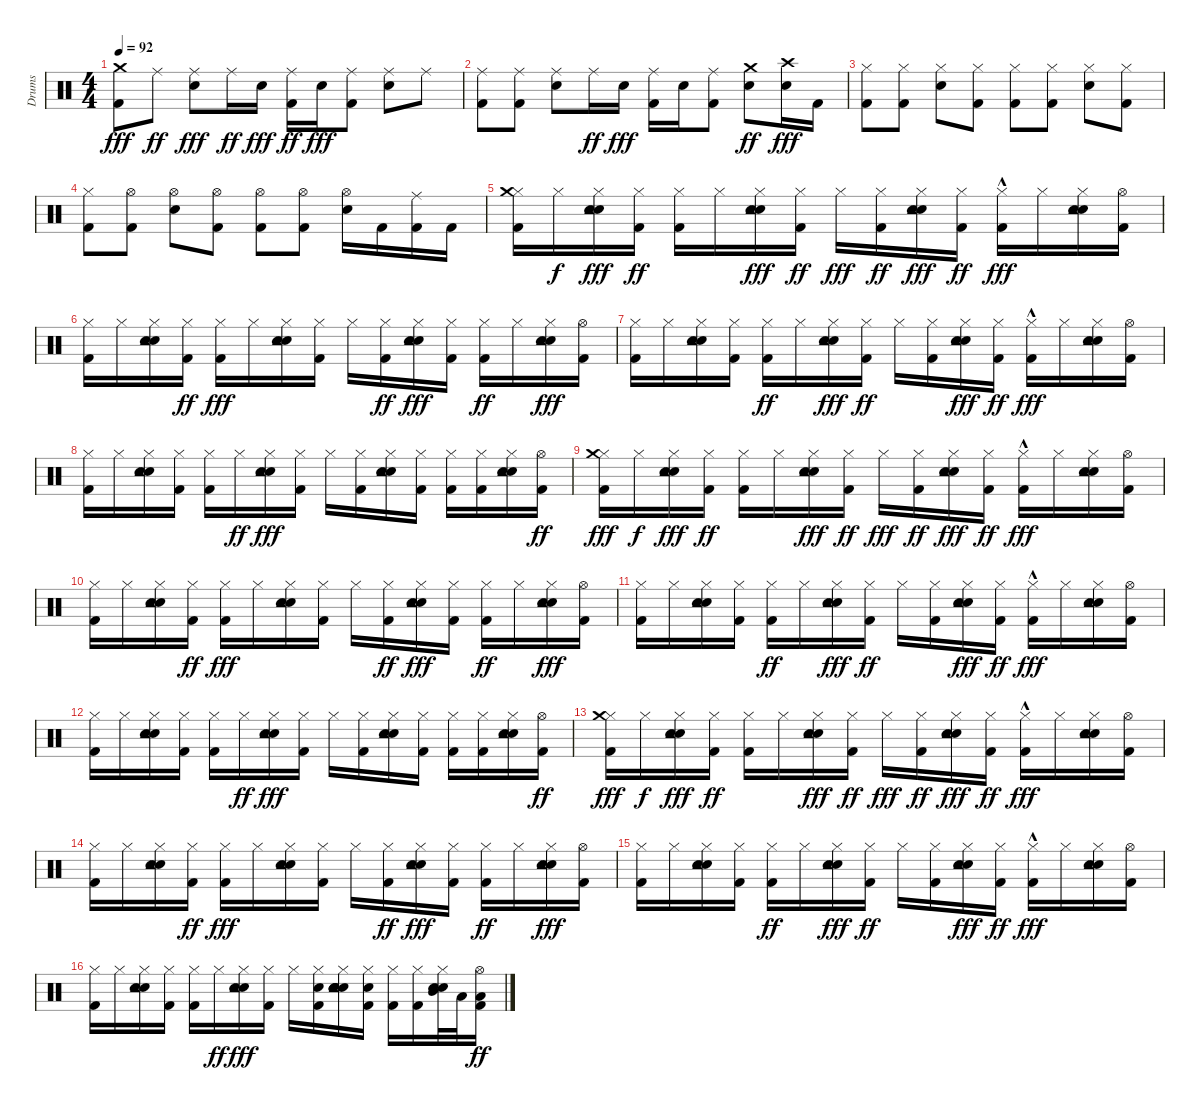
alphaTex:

\track ("Drums" "Drums") {instrument percussion}
\staff {score}
\articulation defaults
\ts (4 4)
\tempo 92
\clef neutral
\ks c
("Kick (hit) 2" "Crash medium (hit)").8{dy fff} "Ride (middle)".8{dy ff} ("Snare (hit) 2" "Ride (middle)").8{dy fff} "Ride (middle)".16{dy ff} "Snare (hit) 2".16{dy fff} ("Kick (hit) 2" "Ride (middle)").16{dy ff} "Snare (hit) 2".16{dy fff} ("Kick (hit) 2" "Ride (middle)").8 ("Snare (hit) 2" "Ride (middle)").8 "Ride (middle)".8 |
("Kick (hit) 2" "Ride (middle)").8 ("Kick (hit) 2" "Ride (middle)").8 ("Snare (hit) 2" "Ride (middle)").8 "Ride (middle)".16{dy ff} "Snare (hit) 2".16{dy fff} ("Kick (hit) 2" "Ride (middle)").16 "Snare (hit) 2".16 ("Kick (hit) 2" "Ride (middle)").8 ("Snare (hit) 2" "Crash medium (hit)").8{dy ff} ("Snare (hit) 2" "Crash high (hit)").16{dy fff} "Kick (hit) 2".16 |
("Kick (hit) 2" "Hi-Hat (closed)").8 ("Kick (hit) 2" "Hi-Hat (closed)").8 ("Snare (hit) 2" "Hi-Hat (closed)").8 ("Kick (hit) 2" "Hi-Hat (closed)").8 ("Kick (hit) 2" "Hi-Hat (closed)").8 ("Kick (hit) 2" "Hi-Hat (closed)").8 ("Snare (hit) 2" "Hi-Hat (closed)").8 ("Kick (hit) 2" "Hi-Hat (closed)").8 |
("Kick (hit) 2" "Hi-Hat (closed)").8 ("Kick (hit) 2" "Hi-Hat (open)").8 ("Snare (hit) 2" "Hi-Hat (open)").8 ("Kick (hit) 2" "Hi-Hat (open)").8 ("Kick (hit) 2" "Hi-Hat (open)").8 ("Kick (hit) 2" "Hi-Hat (open)").8 ("Snare (hit) 2" "Hi-Hat (open)").16 "Kick (hit) 2".16 ("Kick (hit) 2" "Ride (middle)").16 "Kick (hit) 2".16 |
("Kick (hit) 2" "Hi-Hat (closed)" "Crash medium (hit)").16 "Hi-Hat (closed)".16{dy f} ("Snare (hit) 2" "Hand Clap (hit)" "Hi-Hat (closed)" "Tambourine (hit)").16{dy fff} ("Kick (hit) 2" "Hi-Hat (closed)").16{dy ff} ("Kick (hit) 2" "Hi-Hat (closed)").16 "Hi-Hat (closed)".16 ("Snare (hit) 2" "Hand Clap (hit)" "Hi-Hat (closed)" "Tambourine (hit)").16{dy fff} ("Kick (hit) 2" "Hi-Hat (closed)").16{dy ff} "Hi-Hat (closed)".16{dy fff} ("Kick (hit) 2" "Hi-Hat (closed)").16{dy ff} ("Snare (hit) 2" "Hand Clap (hit)" "Hi-Hat (closed)" "Tambourine (hit)").16{dy fff} ("Kick (hit) 2" "Hi-Hat (closed)").16{dy ff} ("Kick (hit) 2"{hac} "Hi-Hat (closed)").16{dy fff} "Hi-Hat (closed)".16 ("Snare (hit) 2" "Hand Clap (hit)" "Hi-Hat (closed)" "Tambourine (hit)").16 ("Kick (hit) 2" "Hi-Hat (open)").16 |
("Kick (hit) 2" "Hi-Hat (closed)").16 "Hi-Hat (closed)".16 ("Snare (hit) 2" "Hand Clap (hit)" "Hi-Hat (closed)" "Tambourine (hit)").16 ("Kick (hit) 2" "Hi-Hat (closed)").16{dy ff} ("Kick (hit) 2" "Hi-Hat (closed)").16{dy fff} "Hi-Hat (closed)".16 ("Snare (hit) 2" "Hand Clap (hit)" "Hi-Hat (closed)" "Tambourine (hit)").16 ("Kick (hit) 2" "Hi-Hat (closed)").16 "Hi-Hat (closed)".16 ("Kick (hit) 2" "Hi-Hat (closed)").16{dy ff} ("Snare (hit) 2" "Hand Clap (hit)" "Hi-Hat (closed)" "Tambourine (hit)").16{dy fff} ("Kick (hit) 2" "Hi-Hat (closed)").16 ("Kick (hit) 2" "Hi-Hat (closed)").16{dy ff} "Hi-Hat (closed)".16 ("Snare (hit) 2" "Hand Clap (hit)" "Hi-Hat (closed)" "Tambourine (hit)").16{dy fff} ("Kick (hit) 2" "Hi-Hat (open)").16 |
("Kick (hit) 2" "Hi-Hat (closed)").16 "Hi-Hat (closed)".16 ("Snare (hit) 2" "Hand Clap (hit)" "Hi-Hat (closed)" "Tambourine (hit)").16 ("Kick (hit) 2" "Hi-Hat (closed)").16 ("Kick (hit) 2" "Hi-Hat (closed)").16{dy ff} "Hi-Hat (closed)".16 ("Snare (hit) 2" "Hand Clap (hit)" "Hi-Hat (closed)" "Tambourine (hit)").16{dy fff} ("Kick (hit) 2" "Hi-Hat (closed)").16{dy ff} "Hi-Hat (closed)".16 ("Kick (hit) 2" "Hi-Hat (closed)").16 ("Snare (hit) 2" "Hand Clap (hit)" "Hi-Hat (closed)" "Tambourine (hit)").16{dy fff} ("Kick (hit) 2" "Hi-Hat (closed)").16{dy ff} ("Kick (hit) 2"{hac} "Hi-Hat (closed)").16{dy fff} "Hi-Hat (closed)".16 ("Snare (hit) 2" "Hand Clap (hit)" "Hi-Hat (closed)" "Tambourine (hit)").16 ("Kick (hit) 2" "Hi-Hat (open)").16 |
("Kick (hit) 2" "Hi-Hat (closed)").16 "Hi-Hat (closed)".16 ("Snare (hit) 2" "Hand Clap (hit)" "Hi-Hat (closed)" "Tambourine (hit)").16 ("Kick (hit) 2" "Hi-Hat (closed)").16 ("Kick (hit) 2" "Hi-Hat (closed)").16 "Hi-Hat (closed)".16{dy ff} ("Snare (hit) 2" "Hand Clap (hit)" "Hi-Hat (closed)" "Tambourine (hit)").16{dy fff} ("Kick (hit) 2" "Hi-Hat (closed)").16 "Hi-Hat (closed)".16 ("Kick (hit) 2" "Hi-Hat (closed)").16 ("Snare (hit) 2" "Hand Clap (hit)" "Hi-Hat (closed)" "Tambourine (hit)").16 ("Kick (hit) 2" "Hi-Hat (closed)").16 ("Kick (hit) 2" "Hi-Hat (closed)").16 ("Kick (hit) 2" "Hi-Hat (closed)").16 ("Snare (hit) 2" "Hand Clap (hit)" "Hi-Hat (closed)" "Tambourine (hit)").16 ("Kick (hit) 2" "Hi-Hat (open)").16{dy ff} |
("Kick (hit) 2" "Hi-Hat (closed)" "Crash medium (hit)").16{dy fff} "Hi-Hat (closed)".16{dy f} ("Snare (hit) 2" "Hand Clap (hit)" "Hi-Hat (closed)" "Tambourine (hit)").16{dy fff} ("Kick (hit) 2" "Hi-Hat (closed)").16{dy ff} ("Kick (hit) 2" "Hi-Hat (closed)").16 "Hi-Hat (closed)".16 ("Snare (hit) 2" "Hand Clap (hit)" "Hi-Hat (closed)" "Tambourine (hit)").16{dy fff} ("Kick (hit) 2" "Hi-Hat (closed)").16{dy ff} "Hi-Hat (closed)".16{dy fff} ("Kick (hit) 2" "Hi-Hat (closed)").16{dy ff} ("Snare (hit) 2" "Hand Clap (hit)" "Hi-Hat (closed)" "Tambourine (hit)").16{dy fff} ("Kick (hit) 2" "Hi-Hat (closed)").16{dy ff} ("Kick (hit) 2"{hac} "Hi-Hat (closed)").16{dy fff} "Hi-Hat (closed)".16 ("Snare (hit) 2" "Hand Clap (hit)" "Hi-Hat (closed)" "Tambourine (hit)").16 ("Kick (hit) 2" "Hi-Hat (open)").16 |
("Kick (hit) 2" "Hi-Hat (closed)").16 "Hi-Hat (closed)".16 ("Snare (hit) 2" "Hand Clap (hit)" "Hi-Hat (closed)" "Tambourine (hit)").16 ("Kick (hit) 2" "Hi-Hat (closed)").16{dy ff} ("Kick (hit) 2" "Hi-Hat (closed)").16{dy fff} "Hi-Hat (closed)".16 ("Snare (hit) 2" "Hand Clap (hit)" "Hi-Hat (closed)" "Tambourine (hit)").16 ("Kick (hit) 2" "Hi-Hat (closed)").16 "Hi-Hat (closed)".16 ("Kick (hit) 2" "Hi-Hat (closed)").16{dy ff} ("Snare (hit) 2" "Hand Clap (hit)" "Hi-Hat (closed)" "Tambourine (hit)").16{dy fff} ("Kick (hit) 2" "Hi-Hat (closed)").16 ("Kick (hit) 2" "Hi-Hat (closed)").16{dy ff} "Hi-Hat (closed)".16 ("Snare (hit) 2" "Hand Clap (hit)" "Hi-Hat (closed)" "Tambourine (hit)").16{dy fff} ("Kick (hit) 2" "Hi-Hat (open)").16 |
("Kick (hit) 2" "Hi-Hat (closed)").16 "Hi-Hat (closed)".16 ("Snare (hit) 2" "Hand Clap (hit)" "Hi-Hat (closed)" "Tambourine (hit)").16 ("Kick (hit) 2" "Hi-Hat (closed)").16 ("Kick (hit) 2" "Hi-Hat (closed)").16{dy ff} "Hi-Hat (closed)".16 ("Snare (hit) 2" "Hand Clap (hit)" "Hi-Hat (closed)" "Tambourine (hit)").16{dy fff} ("Kick (hit) 2" "Hi-Hat (closed)").16{dy ff} "Hi-Hat (closed)".16 ("Kick (hit) 2" "Hi-Hat (closed)").16 ("Snare (hit) 2" "Hand Clap (hit)" "Hi-Hat (closed)" "Tambourine (hit)").16{dy fff} ("Kick (hit) 2" "Hi-Hat (closed)").16{dy ff} ("Kick (hit) 2"{hac} "Hi-Hat (closed)").16{dy fff} "Hi-Hat (closed)".16 ("Snare (hit) 2" "Hand Clap (hit)" "Hi-Hat (closed)" "Tambourine (hit)").16 ("Kick (hit) 2" "Hi-Hat (open)").16 |
("Kick (hit) 2" "Hi-Hat (closed)").16 "Hi-Hat (closed)".16 ("Snare (hit) 2" "Hand Clap (hit)" "Hi-Hat (closed)" "Tambourine (hit)").16 ("Kick (hit) 2" "Hi-Hat (closed)").16 ("Kick (hit) 2" "Hi-Hat (closed)").16 "Hi-Hat (closed)".16{dy ff} ("Snare (hit) 2" "Hand Clap (hit)" "Hi-Hat (closed)" "Tambourine (hit)").16{dy fff} ("Kick (hit) 2" "Hi-Hat (closed)").16 "Hi-Hat (closed)".16 ("Kick (hit) 2" "Hi-Hat (closed)").16 ("Snare (hit) 2" "Hand Clap (hit)" "Hi-Hat (closed)" "Tambourine (hit)").16 ("Kick (hit) 2" "Hi-Hat (closed)").16 ("Kick (hit) 2" "Hi-Hat (closed)").16 ("Kick (hit) 2" "Hi-Hat (closed)").16 ("Snare (hit) 2" "Hand Clap (hit)" "Hi-Hat (closed)" "Tambourine (hit)").16 ("Kick (hit) 2" "Hi-Hat (open)").16{dy ff} |
("Kick (hit) 2" "Hi-Hat (closed)" "Crash medium (hit)").16{dy fff} "Hi-Hat (closed)".16{dy f} ("Snare (hit) 2" "Hand Clap (hit)" "Hi-Hat (closed)" "Tambourine (hit)").16{dy fff} ("Kick (hit) 2" "Hi-Hat (closed)").16{dy ff} ("Kick (hit) 2" "Hi-Hat (closed)").16 "Hi-Hat (closed)".16 ("Snare (hit) 2" "Hand Clap (hit)" "Hi-Hat (closed)" "Tambourine (hit)").16{dy fff} ("Kick (hit) 2" "Hi-Hat (closed)").16{dy ff} "Hi-Hat (closed)".16{dy fff} ("Kick (hit) 2" "Hi-Hat (closed)").16{dy ff} ("Snare (hit) 2" "Hand Clap (hit)" "Hi-Hat (closed)" "Tambourine (hit)").16{dy fff} ("Kick (hit) 2" "Hi-Hat (closed)").16{dy ff} ("Kick (hit) 2"{hac} "Hi-Hat (closed)").16{dy fff} "Hi-Hat (closed)".16 ("Snare (hit) 2" "Hand Clap (hit)" "Hi-Hat (closed)" "Tambourine (hit)").16 ("Kick (hit) 2" "Hi-Hat (open)").16 |
("Kick (hit) 2" "Hi-Hat (closed)").16 "Hi-Hat (closed)".16 ("Snare (hit) 2" "Hand Clap (hit)" "Hi-Hat (closed)" "Tambourine (hit)").16 ("Kick (hit) 2" "Hi-Hat (closed)").16{dy ff} ("Kick (hit) 2" "Hi-Hat (closed)").16{dy fff} "Hi-Hat (closed)".16 ("Snare (hit) 2" "Hand Clap (hit)" "Hi-Hat (closed)" "Tambourine (hit)").16 ("Kick (hit) 2" "Hi-Hat (closed)").16 "Hi-Hat (closed)".16 ("Kick (hit) 2" "Hi-Hat (closed)").16{dy ff} ("Snare (hit) 2" "Hand Clap (hit)" "Hi-Hat (closed)" "Tambourine (hit)").16{dy fff} ("Kick (hit) 2" "Hi-Hat (closed)").16 ("Kick (hit) 2" "Hi-Hat (closed)").16{dy ff} "Hi-Hat (closed)".16 ("Snare (hit) 2" "Hand Clap (hit)" "Hi-Hat (closed)" "Tambourine (hit)").16{dy fff} ("Kick (hit) 2" "Hi-Hat (open)").16 |
("Kick (hit) 2" "Hi-Hat (closed)").16 "Hi-Hat (closed)".16 ("Snare (hit) 2" "Hand Clap (hit)" "Hi-Hat (closed)" "Tambourine (hit)").16 ("Kick (hit) 2" "Hi-Hat (closed)").16 ("Kick (hit) 2" "Hi-Hat (closed)").16{dy ff} "Hi-Hat (closed)".16 ("Snare (hit) 2" "Hand Clap (hit)" "Hi-Hat (closed)" "Tambourine (hit)").16{dy fff} ("Kick (hit) 2" "Hi-Hat (closed)").16{dy ff} "Hi-Hat (closed)".16 ("Kick (hit) 2" "Hi-Hat (closed)").16 ("Snare (hit) 2" "Hand Clap (hit)" "Hi-Hat (closed)" "Tambourine (hit)").16{dy fff} ("Kick (hit) 2" "Hi-Hat (closed)").16{dy ff} ("Kick (hit) 2"{hac} "Hi-Hat (closed)").16{dy fff} "Hi-Hat (closed)".16 ("Snare (hit) 2" "Hand Clap (hit)" "Hi-Hat (closed)" "Tambourine (hit)").16 ("Kick (hit) 2" "Hi-Hat (open)").16 |
("Kick (hit) 2" "Hi-Hat (closed)").16 "Hi-Hat (closed)".16 ("Snare (hit) 2" "Hand Clap (hit)" "Hi-Hat (closed)" "Tambourine (hit)").16 ("Kick (hit) 2" "Hi-Hat (closed)").16 ("Kick (hit) 2" "Hi-Hat (closed)").16 "Hi-Hat (closed)".16{dy ff} ("Snare (hit) 2" "Hand Clap (hit)" "Hi-Hat (closed)" "Tambourine (hit)").16{dy fff} ("Kick (hit) 2" "Hi-Hat (closed)").16 "Hi-Hat (closed)".16 ("Kick (hit) 2" "Snare (hit) 2" "Hi-Hat (closed)").16 ("Snare (hit) 2" "Snare (hit) 2" "Snare (hit) 2" "Hand Clap (hit)" "Hi-Hat (closed)" "Tambourine (hit)").16 ("Snare (hit) 2" "Kick (hit) 2" "Hi-Hat (closed)").16 ("Kick (hit) 2" "Hi-Hat (closed)").16 ("Kick (hit) 2" "Hi-Hat (closed)").16 ("Snare (hit) 2" "Hand Clap (hit)" "Hi-Hat (closed)" "Mid Tom (hit)" "Tambourine (hit)").32 "Low Tom (hit)".32 ("Kick (hit) 2" "Low Floor Tom (hit)" "Hi-Hat (open)").16{dy ff}
